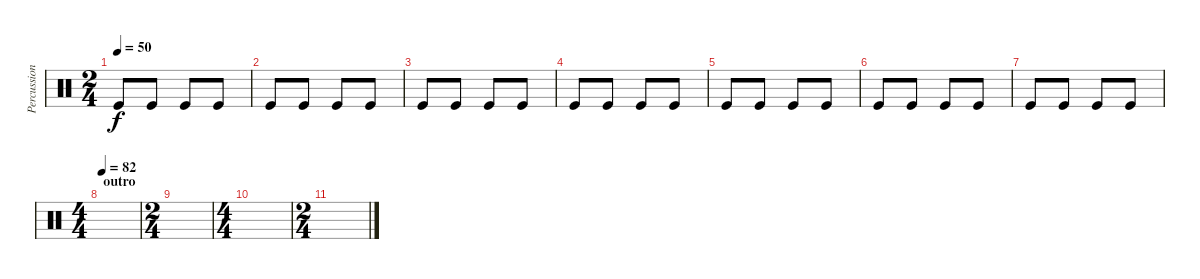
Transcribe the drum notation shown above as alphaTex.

\track ("Percussions" "Percussion") {instrument percussion}
\staff {score}
\articulation defaults
\ts (2 4)
\tempo 50
\clef neutral
\ks c "Kick (hit)".8{dy f} "Kick (hit)".8 "Kick (hit)".8 "Kick (hit)".8
|
"Kick (hit)".8 "Kick (hit)".8 "Kick (hit)".8 "Kick (hit)".8 |
"Kick (hit)".8 "Kick (hit)".8 "Kick (hit)".8 "Kick (hit)".8 |
"Kick (hit)".8 "Kick (hit)".8 "Kick (hit)".8 "Kick (hit)".8 |
"Kick (hit)".8 "Kick (hit)".8 "Kick (hit)".8 "Kick (hit)".8 |
"Kick (hit)".8 "Kick (hit)".8 "Kick (hit)".8 "Kick (hit)".8 |
"Kick (hit)".8 "Kick (hit)".8 "Kick (hit)".8 "Kick (hit)".8 |
\ts (4 4)
\section ("" "outro")
\tempo 82
|
\ts (2 4)
|
\ts (4 4)
|
\ts (2 4)
